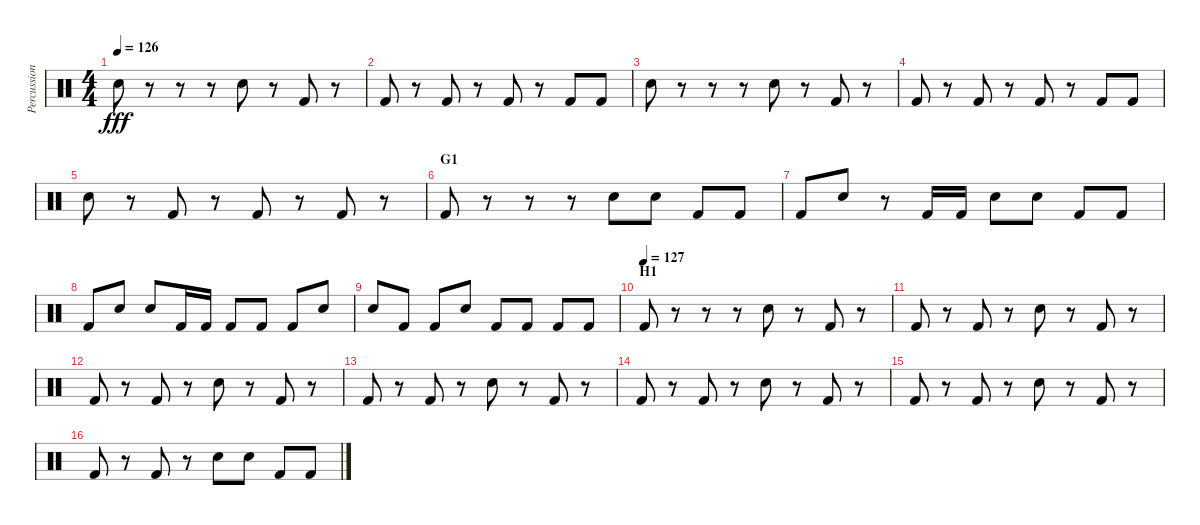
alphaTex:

\track ("Percussion" "Percussion") {instrument percussion}
\staff {score}
\articulation defaults
\ts (4 4)
\tempo 126
\clef neutral
\ks c "Electric Snare (hit)".8{dy fff}
r.8 r.8 r.8 "Electric Snare (hit)".8 r.8 "Kick (hit) 2".8 r.8 |
"Kick (hit) 2".8 r.8 "Kick (hit) 2".8 r.8 "Kick (hit) 2".8 r.8 "Kick (hit) 2".8 "Kick (hit) 2".8 |
"Electric Snare (hit)".8 r.8 r.8 r.8 "Electric Snare (hit)".8 r.8 "Kick (hit) 2".8 r.8 |
"Kick (hit) 2".8 r.8 "Kick (hit) 2".8 r.8 "Kick (hit) 2".8 r.8 "Kick (hit) 2".8 "Kick (hit) 2".8 |
"Electric Snare (hit)".8 r.8 "Kick (hit) 2".8 r.8 "Kick (hit) 2".8 r.8 "Kick (hit) 2".8 r.8 |
\section ("" "G1")
"Kick (hit) 2".8 r.8 r.8 r.8 "Electric Snare (hit)".8 "Electric Snare (hit)".8 "Kick (hit) 2".8 "Kick (hit) 2".8 |
"Kick (hit) 2".8 "Electric Snare (hit)".8 r.8 "Kick (hit) 2".16 "Kick (hit) 2".16 "Electric Snare (hit)".8 "Electric Snare (hit)".8 "Kick (hit) 2".8 "Kick (hit) 2".8 |
"Kick (hit) 2".8 "Electric Snare (hit)".8 "Electric Snare (hit)".8 "Kick (hit) 2".16 "Kick (hit) 2".16 "Kick (hit) 2".8 "Kick (hit) 2".8 "Kick (hit) 2".8 "Electric Snare (hit)".8 |
"Electric Snare (hit)".8 "Kick (hit) 2".8 "Kick (hit) 2".8 "Electric Snare (hit)".8 "Kick (hit) 2".8 "Kick (hit) 2".8 "Kick (hit) 2".8 "Kick (hit) 2".8 |
\section ("" "H1")
\tempo (127)
"Kick (hit) 2".8 r.8 r.8 r.8 "Electric Snare (hit)".8 r.8 "Kick (hit) 2".8 r.8 |
"Kick (hit) 2".8 r.8 "Kick (hit) 2".8 r.8 "Electric Snare (hit)".8 r.8 "Kick (hit) 2".8 r.8 |
"Kick (hit) 2".8 r.8 "Kick (hit) 2".8 r.8 "Electric Snare (hit)".8 r.8 "Kick (hit) 2".8 r.8 |
"Kick (hit) 2".8 r.8 "Kick (hit) 2".8 r.8 "Electric Snare (hit)".8 r.8 "Kick (hit) 2".8 r.8 |
"Kick (hit) 2".8 r.8 "Kick (hit) 2".8 r.8 "Electric Snare (hit)".8 r.8 "Kick (hit) 2".8 r.8 |
"Kick (hit) 2".8 r.8 "Kick (hit) 2".8 r.8 "Electric Snare (hit)".8 r.8 "Kick (hit) 2".8 r.8 |
"Kick (hit) 2".8 r.8 "Kick (hit) 2".8 r.8 "Electric Snare (hit)".8 "Electric Snare (hit)".8 "Kick (hit) 2".8 "Kick (hit) 2".8
